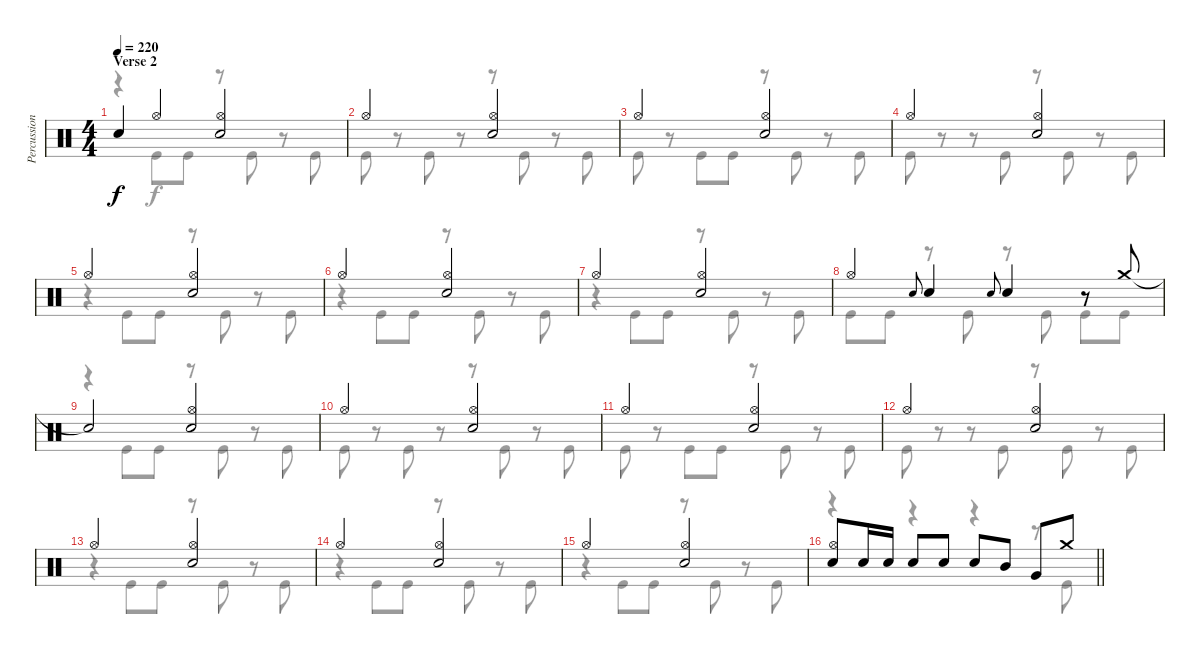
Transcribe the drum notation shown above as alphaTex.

\track ("Percussion" "Percussion") {instrument percussion}
\staff {score}
\articulation defaults
\voice
\ts (4 4)
\section ("" "Verse 2")
\tempo 220
\clef neutral
\ks c "Snare (hit)"{t}.4{dy f} "Hi-Hat (open)".4
("Hi-Hat (open)" "Electric Snare (hit)").2 |
"Hi-Hat (open)".2 ("Hi-Hat (open)" "Electric Snare (hit)").2 |
"Hi-Hat (open)".2 ("Hi-Hat (open)" "Electric Snare (hit)").2 |
"Hi-Hat (open)".2 ("Hi-Hat (open)" "Electric Snare (hit)").2 |
"Hi-Hat (open)".2 ("Hi-Hat (open)" "Electric Snare (hit)").2 |
"Hi-Hat (open)".2 ("Hi-Hat (open)" "Electric Snare (hit)").2 |
"Hi-Hat (open)".2 ("Hi-Hat (open)" "Electric Snare (hit)").2 |
"Hi-Hat (open)".4 "Electric Snare (hit)".8{gr onbeat} "Electric Snare (hit)".4 "Electric Snare (hit)".8{gr onbeat} "Electric Snare (hit)".4 r.8 "Crash medium (hit)".8 |
"Snare (hit)"{t}.2 ("Hi-Hat (open)" "Electric Snare (hit)").2 |
"Hi-Hat (open)".2 ("Hi-Hat (open)" "Electric Snare (hit)").2 |
"Hi-Hat (open)".2 ("Hi-Hat (open)" "Electric Snare (hit)").2 |
"Hi-Hat (open)".2 ("Hi-Hat (open)" "Electric Snare (hit)").2 |
"Hi-Hat (open)".2 ("Hi-Hat (open)" "Electric Snare (hit)").2 |
"Hi-Hat (open)".2 ("Hi-Hat (open)" "Electric Snare (hit)").2 |
"Hi-Hat (open)".2 ("Hi-Hat (open)" "Electric Snare (hit)").2 |
\barLineRight lightlight
("Hi-Hat (open)" "Electric Snare (hit)").8 "Electric Snare (hit)".16 "Electric Snare (hit)".16 "Electric Snare (hit)".8 "Electric Snare (hit)".8 "Electric Snare (hit)".8 "Mid Tom (hit)".8 "Very Low Tom (hit)".8 "Crash medium (hit)".8
\voice
\clef neutral
\ottava regular
\simile none
\ks c
r.4{dy f} "Kick (hit)".8 "Kick (hit)".8 r.8 "Kick (hit)".8 r.8 "Kick (hit)".8 |
"Kick (hit)".8 r.8 "Kick (hit)".8 r.8 r.8 "Kick (hit)".8 r.8 "Kick (hit)".8 |
"Kick (hit)".8 r.8 "Kick (hit)".8 "Kick (hit)".8 r.8 "Kick (hit)".8 r.8 "Kick (hit)".8 |
"Kick (hit)".8 r.8 r.8 "Kick (hit)".8 r.8 "Kick (hit)".8 r.8 "Kick (hit)".8 |
r.4 "Kick (hit)".8 "Kick (hit)".8 r.8 "Kick (hit)".8 r.8 "Kick (hit)".8 |
r.4 "Kick (hit)".8 "Kick (hit)".8 r.8 "Kick (hit)".8 r.8 "Kick (hit)".8 |
r.4 "Kick (hit)".8 "Kick (hit)".8 r.8 "Kick (hit)".8 r.8 "Kick (hit)".8 |
"Kick (hit)".8 "Kick (hit)".8 r.8 "Kick (hit)".8 r.8 "Kick (hit)".8 "Kick (hit)".8 "Kick (hit)".8 |
r.4 "Kick (hit)".8 "Kick (hit)".8 r.8 "Kick (hit)".8 r.8 "Kick (hit)".8 |
"Kick (hit)".8 r.8 "Kick (hit)".8 r.8 r.8 "Kick (hit)".8 r.8 "Kick (hit)".8 |
"Kick (hit)".8 r.8 "Kick (hit)".8 "Kick (hit)".8 r.8 "Kick (hit)".8 r.8 "Kick (hit)".8 |
"Kick (hit)".8 r.8 r.8 "Kick (hit)".8 r.8 "Kick (hit)".8 r.8 "Kick (hit)".8 |
r.4 "Kick (hit)".8 "Kick (hit)".8 r.8 "Kick (hit)".8 r.8 "Kick (hit)".8 |
r.4 "Kick (hit)".8 "Kick (hit)".8 r.8 "Kick (hit)".8 r.8 "Kick (hit)".8 |
r.4 "Kick (hit)".8 "Kick (hit)".8 r.8 "Kick (hit)".8 r.8 "Kick (hit)".8 |
\barLineRight lightlight
r.4 r.4 r.4 r.8 "Kick (hit)".8
